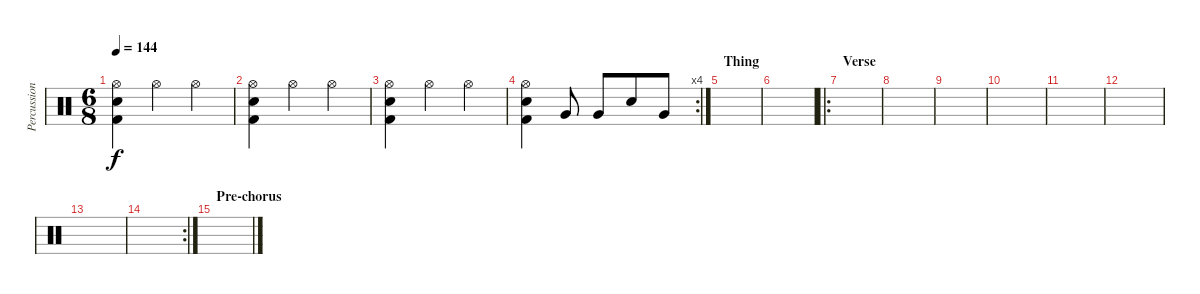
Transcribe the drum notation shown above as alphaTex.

\track ("Percussion" "Percussion") {instrument percussion}
\staff {score}
\articulation defaults
\ts (6 8)
\tempo 144
\clef neutral
\ks c
("Hi-Hat (open)" "Electric Snare (hit)" "Kick (hit) 2").4{dy f} "Hi-Hat (open)".4 "Hi-Hat (open)".4 |
("Hi-Hat (open)" "Electric Snare (hit)" "Kick (hit) 2").4 "Hi-Hat (open)".4 "Hi-Hat (open)".4 |
("Hi-Hat (open)" "Electric Snare (hit)" "Kick (hit) 2").4 "Hi-Hat (open)".4 "Hi-Hat (open)".4 |
\rc 4
("Hi-Hat (open)" "Electric Snare (hit)" "Kick (hit) 2").4 "Very Low Tom (hit)".8 "Very Low Tom (hit)".8 "Electric Snare (hit)".8 "Very Low Tom (hit)".8 |
\section ("" "Thing")
|
|
\ro
\section ("" "Verse")
|
|
|
|
|
|
|
\rc 2
|
\section ("" "Pre-chorus")
